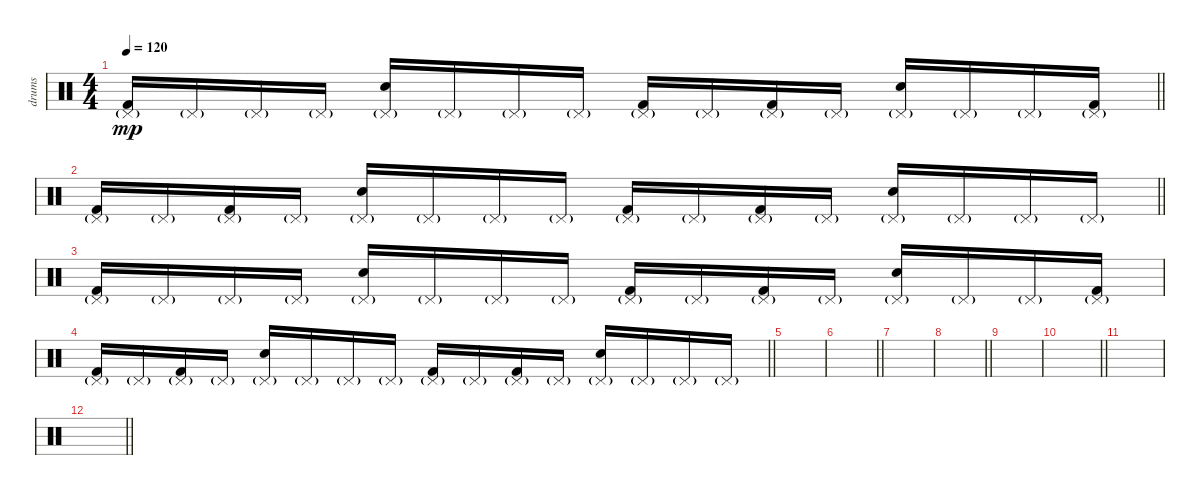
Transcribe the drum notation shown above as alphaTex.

\track ("drums" "drums") {instrument percussion}
\staff {score}
\articulation defaults
\ts (4 4)
\tempo 120
\clef neutral
\barLineRight lightlight
\ks c
("Kick (hit) 2" "Pedal Hi-Hat (hit)"{g}).16{dy mp volume 0} "Pedal Hi-Hat (hit)"{g}.16 "Pedal Hi-Hat (hit)"{g}.16 "Pedal Hi-Hat (hit)"{g}.16 ("Hand Clap (hit)" "Pedal Hi-Hat (hit)"{g}).16 "Pedal Hi-Hat (hit)"{g}.16 "Pedal Hi-Hat (hit)"{g}.16 "Pedal Hi-Hat (hit)"{g}.16 ("Kick (hit) 2" "Pedal Hi-Hat (hit)"{g}).16 "Pedal Hi-Hat (hit)"{g}.16 ("Kick (hit) 2" "Pedal Hi-Hat (hit)"{g}).16 "Pedal Hi-Hat (hit)"{g}.16 ("Hand Clap (hit)" "Pedal Hi-Hat (hit)"{g}).16 "Pedal Hi-Hat (hit)"{g}.16 "Pedal Hi-Hat (hit)"{g}.16 ("Kick (hit) 2" "Pedal Hi-Hat (hit)"{g}).16 |
\barLineRight lightlight
("Kick (hit) 2" "Pedal Hi-Hat (hit)"{g}).16 "Pedal Hi-Hat (hit)"{g}.16 ("Kick (hit) 2" "Pedal Hi-Hat (hit)"{g}).16 "Pedal Hi-Hat (hit)"{g}.16 ("Hand Clap (hit)" "Pedal Hi-Hat (hit)"{g}).16 "Pedal Hi-Hat (hit)"{g}.16 "Pedal Hi-Hat (hit)"{g}.16 "Pedal Hi-Hat (hit)"{g}.16 ("Kick (hit) 2" "Pedal Hi-Hat (hit)"{g}).16 "Pedal Hi-Hat (hit)"{g}.16 ("Kick (hit) 2" "Pedal Hi-Hat (hit)"{g}).16 "Pedal Hi-Hat (hit)"{g}.16 ("Hand Clap (hit)" "Pedal Hi-Hat (hit)"{g}).16 "Pedal Hi-Hat (hit)"{g}.16 "Pedal Hi-Hat (hit)"{g}.16 "Pedal Hi-Hat (hit)"{g}.16 |
("Kick (hit) 2" "Pedal Hi-Hat (hit)"{g}).16 "Pedal Hi-Hat (hit)"{g}.16 "Pedal Hi-Hat (hit)"{g}.16 "Pedal Hi-Hat (hit)"{g}.16 ("Hand Clap (hit)" "Pedal Hi-Hat (hit)"{g}).16 "Pedal Hi-Hat (hit)"{g}.16 "Pedal Hi-Hat (hit)"{g}.16 "Pedal Hi-Hat (hit)"{g}.16 ("Kick (hit) 2" "Pedal Hi-Hat (hit)"{g}).16 "Pedal Hi-Hat (hit)"{g}.16 ("Kick (hit) 2" "Pedal Hi-Hat (hit)"{g}).16 "Pedal Hi-Hat (hit)"{g}.16 ("Hand Clap (hit)" "Pedal Hi-Hat (hit)"{g}).16 "Pedal Hi-Hat (hit)"{g}.16 "Pedal Hi-Hat (hit)"{g}.16 ("Kick (hit) 2" "Pedal Hi-Hat (hit)"{g}).16 |
\barLineRight lightlight
("Kick (hit) 2" "Pedal Hi-Hat (hit)"{g}).16 "Pedal Hi-Hat (hit)"{g}.16 ("Kick (hit) 2" "Pedal Hi-Hat (hit)"{g}).16 "Pedal Hi-Hat (hit)"{g}.16 ("Hand Clap (hit)" "Pedal Hi-Hat (hit)"{g}).16 "Pedal Hi-Hat (hit)"{g}.16 "Pedal Hi-Hat (hit)"{g}.16 "Pedal Hi-Hat (hit)"{g}.16 ("Kick (hit) 2" "Pedal Hi-Hat (hit)"{g}).16 "Pedal Hi-Hat (hit)"{g}.16 ("Kick (hit) 2" "Pedal Hi-Hat (hit)"{g}).16 "Pedal Hi-Hat (hit)"{g}.16 ("Hand Clap (hit)" "Pedal Hi-Hat (hit)"{g}).16 "Pedal Hi-Hat (hit)"{g}.16 "Pedal Hi-Hat (hit)"{g}.16 "Pedal Hi-Hat (hit)"{g}.16 |
|
\barLineRight lightlight
|
|
\barLineRight lightlight
|
|
\barLineRight lightlight
|
|
\barLineRight lightlight
